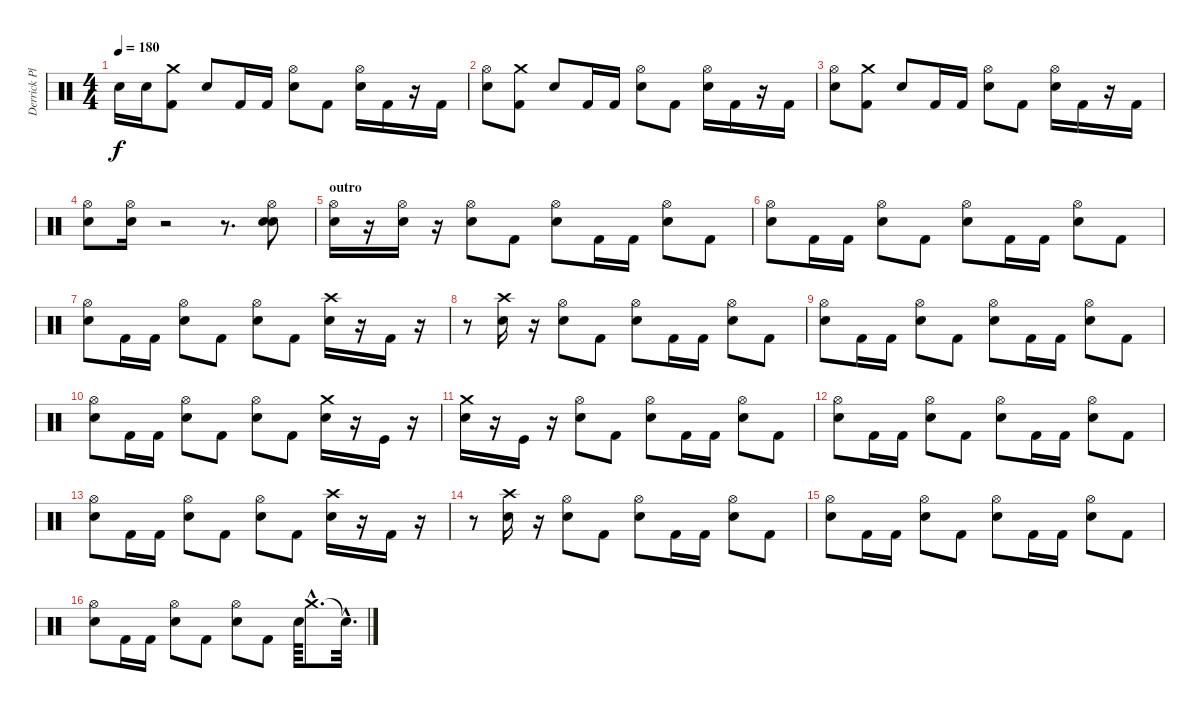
\track ("Derrick Plourde" "Derrick Pl") {instrument percussion}
\staff {score}
\articulation defaults
\ts (4 4)
\tempo 180
\clef neutral
\ks c "Electric Snare (hit)".16{dy f} "Electric Snare (hit)".16
("Crash medium (hit)" "Kick (hit) 2").8 "Electric Snare (hit)".8 "Kick (hit) 2".16 "Kick (hit) 2".16 ("Hi-Hat (open)" "Electric Snare (hit)").8 "Kick (hit) 2".8 ("Hi-Hat (open)" "Electric Snare (hit)").16 "Kick (hit) 2".16 r.16 "Kick (hit) 2".16 |
("Hi-Hat (open)" "Electric Snare (hit)").8 ("Crash medium (hit)" "Kick (hit) 2").8 "Electric Snare (hit)".8 "Kick (hit) 2".16 "Kick (hit) 2".16 ("Hi-Hat (open)" "Electric Snare (hit)").8 "Kick (hit) 2".8 ("Hi-Hat (open)" "Electric Snare (hit)").16 "Kick (hit) 2".16 r.16 "Kick (hit) 2".16 |
("Hi-Hat (open)" "Electric Snare (hit)").8 ("Crash medium (hit)" "Kick (hit) 2").8 "Electric Snare (hit)".8 "Kick (hit) 2".16 "Kick (hit) 2".16 ("Hi-Hat (open)" "Electric Snare (hit)").8 "Kick (hit) 2".8 ("Hi-Hat (open)" "Electric Snare (hit)").16 "Kick (hit) 2".16 r.16 "Kick (hit) 2".16 |
("Hi-Hat (open)" "Electric Snare (hit)").8 ("Electric Snare (hit)" "Hi-Hat (open)").16 r.2 r.8{d} ("Electric Snare (hit)" "Hi-Hat (open)" "Electric Snare (hit)").8 |
\section ("" "outro")
("Hi-Hat (open)" "Electric Snare (hit)").16 r.16 ("Hi-Hat (open)" "Electric Snare (hit)").16 r.16 ("Hi-Hat (open)" "Electric Snare (hit)").8 "Kick (hit) 2".8 ("Hi-Hat (open)" "Electric Snare (hit)").8 "Kick (hit) 2".16 "Kick (hit) 2".16 ("Hi-Hat (open)" "Electric Snare (hit)").8 "Kick (hit) 2".8 |
("Hi-Hat (open)" "Electric Snare (hit)").8 "Kick (hit) 2".16 "Kick (hit) 2".16 ("Hi-Hat (open)" "Electric Snare (hit)").8 "Kick (hit) 2".8 ("Hi-Hat (open)" "Electric Snare (hit)").8 "Kick (hit) 2".16 "Kick (hit) 2".16 ("Hi-Hat (open)" "Electric Snare (hit)").8 "Kick (hit) 2".8 |
("Hi-Hat (open)" "Electric Snare (hit)").8 "Kick (hit) 2".16 "Kick (hit) 2".16 ("Hi-Hat (open)" "Electric Snare (hit)").8 "Kick (hit) 2".8 ("Hi-Hat (open)" "Electric Snare (hit)").8 "Kick (hit) 2".8 ("Crash high (hit)" "Electric Snare (hit)").16 r.16 "Kick (hit) 2".16 r.16 |
r.8 ("Crash high (hit)" "Electric Snare (hit)").16 r.16 ("Hi-Hat (open)" "Electric Snare (hit)").8 "Kick (hit) 2".8 ("Hi-Hat (open)" "Electric Snare (hit)").8 "Kick (hit) 2".16 "Kick (hit) 2".16 ("Hi-Hat (open)" "Electric Snare (hit)").8 "Kick (hit) 2".8 |
("Hi-Hat (open)" "Electric Snare (hit)").8 "Kick (hit) 2".16 "Kick (hit) 2".16 ("Hi-Hat (open)" "Electric Snare (hit)").8 "Kick (hit) 2".8 ("Hi-Hat (open)" "Electric Snare (hit)").8 "Kick (hit) 2".16 "Kick (hit) 2".16 ("Hi-Hat (open)" "Electric Snare (hit)").8 "Kick (hit) 2".8 |
("Hi-Hat (open)" "Electric Snare (hit)").8 "Kick (hit) 2".16 "Kick (hit) 2".16 ("Hi-Hat (open)" "Electric Snare (hit)").8 "Kick (hit) 2".8 ("Hi-Hat (open)" "Electric Snare (hit)").8 "Kick (hit) 2".8 ("Crash medium (hit)" "Electric Snare (hit)").16 r.16 "Kick (hit)".16 r.16 |
("Crash medium (hit)" "Electric Snare (hit)").16 r.16 "Kick (hit)".16 r.16 ("Hi-Hat (open)" "Electric Snare (hit)").8 "Kick (hit) 2".8 ("Hi-Hat (open)" "Electric Snare (hit)").8 "Kick (hit) 2".16 "Kick (hit) 2".16 ("Hi-Hat (open)" "Electric Snare (hit)").8 "Kick (hit) 2".8 |
("Hi-Hat (open)" "Electric Snare (hit)").8 "Kick (hit) 2".16 "Kick (hit) 2".16 ("Hi-Hat (open)" "Electric Snare (hit)").8 "Kick (hit) 2".8 ("Hi-Hat (open)" "Electric Snare (hit)").8 "Kick (hit) 2".16 "Kick (hit) 2".16 ("Hi-Hat (open)" "Electric Snare (hit)").8 "Kick (hit) 2".8 |
("Hi-Hat (open)" "Electric Snare (hit)").8 "Kick (hit) 2".16 "Kick (hit) 2".16 ("Hi-Hat (open)" "Electric Snare (hit)").8 "Kick (hit) 2".8 ("Hi-Hat (open)" "Electric Snare (hit)").8 "Kick (hit) 2".8 ("Crash high (hit)" "Electric Snare (hit)").16 r.16 "Kick (hit) 2".16 r.16 |
r.8 ("Crash high (hit)" "Electric Snare (hit)").16 r.16 ("Hi-Hat (open)" "Electric Snare (hit)").8 "Kick (hit) 2".8 ("Hi-Hat (open)" "Electric Snare (hit)").8 "Kick (hit) 2".16 "Kick (hit) 2".16 ("Hi-Hat (open)" "Electric Snare (hit)").8 "Kick (hit) 2".8 |
("Hi-Hat (open)" "Electric Snare (hit)").8 "Kick (hit) 2".16 "Kick (hit) 2".16 ("Hi-Hat (open)" "Electric Snare (hit)").8 "Kick (hit) 2".8 ("Hi-Hat (open)" "Electric Snare (hit)").8 "Kick (hit) 2".16 "Kick (hit) 2".16 ("Hi-Hat (open)" "Electric Snare (hit)").8 "Kick (hit) 2".8 |
("Hi-Hat (open)" "Electric Snare (hit)").8 "Kick (hit) 2".16 "Kick (hit) 2".16 ("Hi-Hat (open)" "Electric Snare (hit)").8 "Kick (hit) 2".8 ("Hi-Hat (open)" "Electric Snare (hit)").8 "Kick (hit) 2".8 "Electric Snare (hit)".64 "Crash medium (hit)"{hac}.8{d} "Snare (hit)"{hac t}.32{d}
